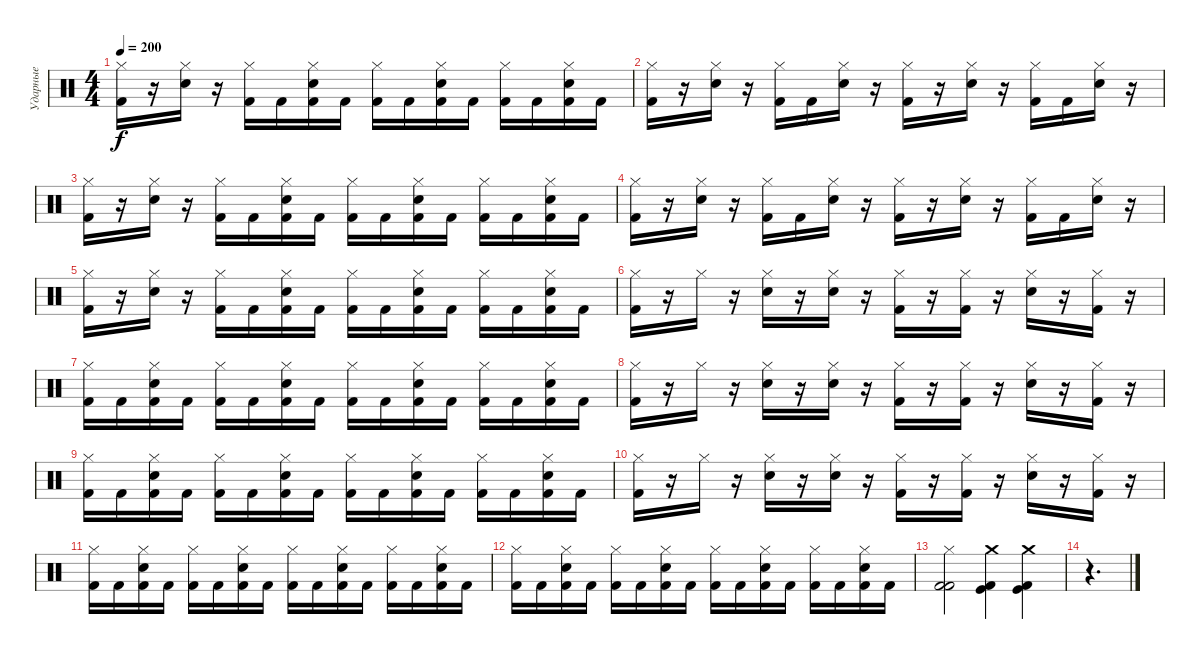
\track ("Ударные" "Ударные") {instrument percussion}
\staff {score}
\articulation defaults
\ts (4 4)
\tempo 200
\clef neutral
\ks c
("Hi-Hat (closed)" "Kick (hit) 2").16{dy f} r.16 ("Hi-Hat (closed)" "Electric Snare (hit)").16 r.16 ("Hi-Hat (closed)" "Kick (hit) 2").16 "Kick (hit) 2".16 ("Hi-Hat (closed)" "Electric Snare (hit)" "Kick (hit) 2").16 "Kick (hit) 2".16 ("Hi-Hat (closed)" "Kick (hit) 2").16 "Kick (hit) 2".16 ("Hi-Hat (closed)" "Kick (hit) 2" "Electric Snare (hit)").16 "Kick (hit) 2".16 ("Hi-Hat (closed)" "Kick (hit) 2").16 "Kick (hit) 2".16 ("Hi-Hat (closed)" "Kick (hit) 2" "Electric Snare (hit)").16 "Kick (hit) 2".16 |
("Hi-Hat (closed)" "Kick (hit) 2").16 r.16 ("Hi-Hat (closed)" "Electric Snare (hit)").16 r.16 ("Hi-Hat (closed)" "Kick (hit) 2").16 "Kick (hit) 2".16 ("Hi-Hat (closed)" "Electric Snare (hit)").16 r.16 ("Hi-Hat (closed)" "Kick (hit) 2").16 r.16 ("Hi-Hat (closed)" "Electric Snare (hit)").16 r.16 ("Hi-Hat (closed)" "Kick (hit) 2").16 "Kick (hit) 2".16 ("Hi-Hat (closed)" "Electric Snare (hit)").16 r.16 |
("Hi-Hat (closed)" "Kick (hit) 2").16 r.16 ("Hi-Hat (closed)" "Electric Snare (hit)").16 r.16 ("Hi-Hat (closed)" "Kick (hit) 2").16 "Kick (hit) 2".16 ("Hi-Hat (closed)" "Electric Snare (hit)" "Kick (hit) 2").16 "Kick (hit) 2".16 ("Hi-Hat (closed)" "Kick (hit) 2").16 "Kick (hit) 2".16 ("Hi-Hat (closed)" "Kick (hit) 2" "Electric Snare (hit)").16 "Kick (hit) 2".16 ("Hi-Hat (closed)" "Kick (hit) 2").16 "Kick (hit) 2".16 ("Hi-Hat (closed)" "Kick (hit) 2" "Electric Snare (hit)").16 "Kick (hit) 2".16 |
("Hi-Hat (closed)" "Kick (hit) 2").16 r.16 ("Hi-Hat (closed)" "Electric Snare (hit)").16 r.16 ("Hi-Hat (closed)" "Kick (hit) 2").16 "Kick (hit) 2".16 ("Hi-Hat (closed)" "Electric Snare (hit)").16 r.16 ("Hi-Hat (closed)" "Kick (hit) 2").16 r.16 ("Hi-Hat (closed)" "Electric Snare (hit)").16 r.16 ("Hi-Hat (closed)" "Kick (hit) 2").16 "Kick (hit) 2".16 ("Hi-Hat (closed)" "Electric Snare (hit)").16 r.16 |
("Hi-Hat (closed)" "Kick (hit) 2").16 r.16 ("Hi-Hat (closed)" "Electric Snare (hit)").16 r.16 ("Hi-Hat (closed)" "Kick (hit) 2").16 "Kick (hit) 2".16 ("Hi-Hat (closed)" "Electric Snare (hit)" "Kick (hit) 2").16 "Kick (hit) 2".16 ("Hi-Hat (closed)" "Kick (hit) 2").16 "Kick (hit) 2".16 ("Hi-Hat (closed)" "Kick (hit) 2" "Electric Snare (hit)").16 "Kick (hit) 2".16 ("Hi-Hat (closed)" "Kick (hit) 2").16 "Kick (hit) 2".16 ("Hi-Hat (closed)" "Kick (hit) 2" "Electric Snare (hit)").16 "Kick (hit) 2".16 |
("Kick (hit) 2" "Hi-Hat (closed)").16 r.16 "Hi-Hat (closed)".16 r.16 ("Electric Snare (hit)" "Hi-Hat (closed)").16 r.16 ("Electric Snare (hit)" "Hi-Hat (closed)").16 r.16 ("Kick (hit) 2" "Hi-Hat (closed)").16 r.16 ("Kick (hit) 2" "Hi-Hat (closed)").16 r.16 ("Electric Snare (hit)" "Hi-Hat (closed)").16 r.16 ("Kick (hit) 2" "Hi-Hat (closed)").16 r.16 |
("Kick (hit) 2" "Hi-Hat (closed)").16 "Kick (hit) 2".16 ("Kick (hit) 2" "Electric Snare (hit)" "Hi-Hat (closed)").16 "Kick (hit) 2".16 ("Kick (hit) 2" "Hi-Hat (closed)").16 "Kick (hit) 2".16 ("Kick (hit) 2" "Electric Snare (hit)" "Hi-Hat (closed)").16 "Kick (hit) 2".16 ("Kick (hit) 2" "Hi-Hat (closed)").16 "Kick (hit) 2".16 ("Kick (hit) 2" "Electric Snare (hit)" "Hi-Hat (closed)").16 "Kick (hit) 2".16 ("Kick (hit) 2" "Hi-Hat (closed)").16 "Kick (hit) 2".16 ("Kick (hit) 2" "Electric Snare (hit)" "Hi-Hat (closed)").16 "Kick (hit) 2".16 |
("Kick (hit) 2" "Hi-Hat (closed)").16 r.16 "Hi-Hat (closed)".16 r.16 ("Electric Snare (hit)" "Hi-Hat (closed)").16 r.16 ("Electric Snare (hit)" "Hi-Hat (closed)").16 r.16 ("Kick (hit) 2" "Hi-Hat (closed)").16 r.16 ("Kick (hit) 2" "Hi-Hat (closed)").16 r.16 ("Electric Snare (hit)" "Hi-Hat (closed)").16 r.16 ("Kick (hit) 2" "Hi-Hat (closed)").16 r.16 |
("Kick (hit) 2" "Hi-Hat (closed)").16 "Kick (hit) 2".16 ("Kick (hit) 2" "Electric Snare (hit)" "Hi-Hat (closed)").16 "Kick (hit) 2".16 ("Kick (hit) 2" "Hi-Hat (closed)").16 "Kick (hit) 2".16 ("Kick (hit) 2" "Electric Snare (hit)" "Hi-Hat (closed)").16 "Kick (hit) 2".16 ("Kick (hit) 2" "Hi-Hat (closed)").16 "Kick (hit) 2".16 ("Kick (hit) 2" "Electric Snare (hit)" "Hi-Hat (closed)").16 "Kick (hit) 2".16 ("Kick (hit) 2" "Hi-Hat (closed)").16 "Kick (hit) 2".16 ("Kick (hit) 2" "Electric Snare (hit)" "Hi-Hat (closed)").16 "Kick (hit) 2".16 |
("Kick (hit) 2" "Hi-Hat (closed)").16 r.16 "Hi-Hat (closed)".16 r.16 ("Electric Snare (hit)" "Hi-Hat (closed)").16 r.16 ("Electric Snare (hit)" "Hi-Hat (closed)").16 r.16 ("Kick (hit) 2" "Hi-Hat (closed)").16 r.16 ("Kick (hit) 2" "Hi-Hat (closed)").16 r.16 ("Electric Snare (hit)" "Hi-Hat (closed)").16 r.16 ("Kick (hit) 2" "Hi-Hat (closed)").16 r.16 |
("Kick (hit) 2" "Hi-Hat (closed)").16 "Kick (hit) 2".16 ("Kick (hit) 2" "Electric Snare (hit)" "Hi-Hat (closed)").16 "Kick (hit) 2".16 ("Kick (hit) 2" "Hi-Hat (closed)").16 "Kick (hit) 2".16 ("Kick (hit) 2" "Electric Snare (hit)" "Hi-Hat (closed)").16 "Kick (hit) 2".16 ("Kick (hit) 2" "Hi-Hat (closed)").16 "Kick (hit) 2".16 ("Kick (hit) 2" "Electric Snare (hit)" "Hi-Hat (closed)").16 "Kick (hit) 2".16 ("Kick (hit) 2" "Hi-Hat (closed)").16 "Kick (hit) 2".16 ("Kick (hit) 2" "Electric Snare (hit)" "Hi-Hat (closed)").16 "Kick (hit) 2".16 |
("Kick (hit) 2" "Hi-Hat (closed)").16 "Kick (hit) 2".16 ("Kick (hit) 2" "Electric Snare (hit)" "Hi-Hat (closed)").16 "Kick (hit) 2".16 ("Kick (hit) 2" "Hi-Hat (closed)").16 "Kick (hit) 2".16 ("Kick (hit) 2" "Electric Snare (hit)" "Hi-Hat (closed)").16 "Kick (hit) 2".16 ("Kick (hit) 2" "Hi-Hat (closed)").16 "Kick (hit) 2".16 ("Kick (hit) 2" "Electric Snare (hit)" "Hi-Hat (closed)").16 "Kick (hit) 2".16 ("Kick (hit) 2" "Hi-Hat (closed)").16 "Kick (hit) 2".16 ("Kick (hit) 2" "Electric Snare (hit)" "Hi-Hat (closed)").16 "Kick (hit) 2".16 |
("Kick (hit) 2" "Kick (hit) 2" "Hi-Hat (closed)").2 ("Kick (hit)" "Kick (hit) 2" "Crash medium (hit)").4 ("Kick (hit)" "Kick (hit) 2" "Crash medium (hit)").4 |
r.4{d}
